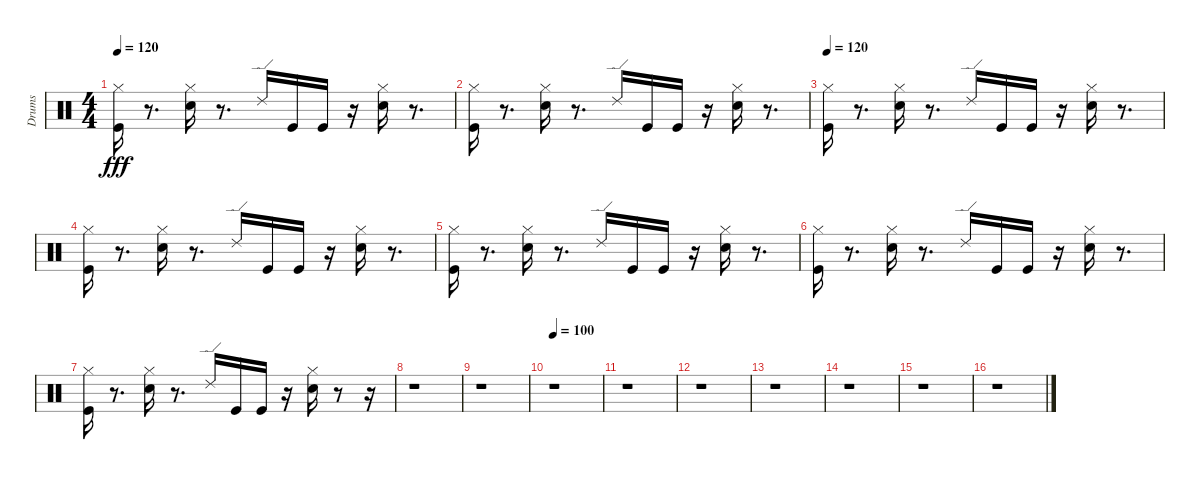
\track ("Drums" "Drums") {instrument percussion}
\staff {score}
\articulation defaults
\ts (4 4)
\tempo 120
\clef neutral
\ks c
("Hi-Hat (closed)" "Kick (hit)").16{dy fff volume 15} r.8{d} ("Hi-Hat (closed)" "Snare (hit) 2").16{volume 14} r.8{d} "Ride (edge) 2".16{volume 14} "Kick (hit)".16{volume 14} "Kick (hit)".16 r.16 ("Hi-Hat (closed)" "Snare (hit) 2").16{volume 13} r.8{d} |
("Hi-Hat (closed)" "Kick (hit)").16{volume 13} r.8{d} ("Hi-Hat (closed)" "Snare (hit) 2").16{volume 12} r.8{d} "Ride (edge) 2".16{volume 12} "Kick (hit)".16{volume 12} "Kick (hit)".16{volume 12} r.16 ("Hi-Hat (closed)" "Snare (hit) 2").16{volume 11} r.8{d} |
\tempo 120
("Hi-Hat (closed)" "Kick (hit)").16{volume 11} r.8{d} ("Hi-Hat (closed)" "Snare (hit) 2").16{volume 10} r.8{d} "Ride (edge) 2".16{volume 10} "Kick (hit)".16{volume 9} "Kick (hit)".16{volume 9} r.16 ("Hi-Hat (closed)" "Snare (hit) 2").16{volume 9} r.8{d} |
("Hi-Hat (closed)" "Kick (hit)").16{volume 8} r.8{d} ("Hi-Hat (closed)" "Snare (hit) 2").16{volume 8} r.8{d} "Ride (edge) 2".16{volume 7} "Kick (hit)".16{volume 7} "Kick (hit)".16{volume 7} r.16 ("Hi-Hat (closed)" "Snare (hit) 2").16{volume 6} r.8{d} |
("Hi-Hat (closed)" "Kick (hit)").16{volume 6} r.8{d} ("Hi-Hat (closed)" "Snare (hit) 2").16{volume 5} r.8{d} "Ride (edge) 2".16{volume 4} "Kick (hit)".16{volume 4} "Kick (hit)".16{volume 4} r.16 ("Hi-Hat (closed)" "Snare (hit) 2").16{volume 4} r.8{d} |
("Hi-Hat (closed)" "Kick (hit)").16{volume 3} r.8{d} ("Hi-Hat (closed)" "Snare (hit) 2").16{volume 2} r.8{d} "Ride (edge) 2".16{volume 2} "Kick (hit)".16{volume 1} "Kick (hit)".16{volume 1} r.16 ("Hi-Hat (closed)" "Snare (hit) 2").16{volume 1} r.8{d} |
("Hi-Hat (closed)" "Kick (hit)").16{volume 0} r.8{d} ("Hi-Hat (closed)" "Snare (hit) 2").16{volume 0} r.8{d} "Ride (edge) 2".16 "Kick (hit)".16 "Kick (hit)".16 r.16 ("Hi-Hat (closed)" "Snare (hit) 2").16 r.8 r.16 |
r.1 |
r.1 |
\tempo 100
r.1 |
r.1 |
r.1 |
r.1 |
r.1 |
r.1 |
r.1
